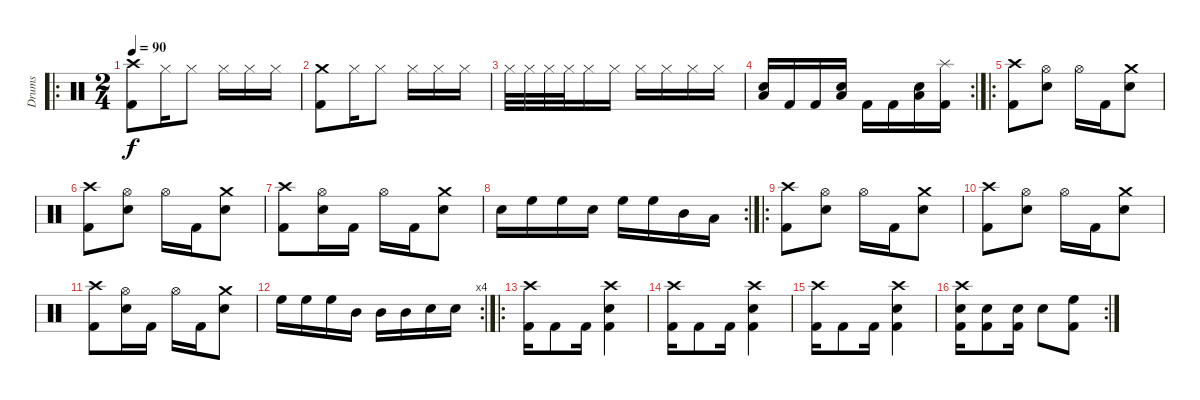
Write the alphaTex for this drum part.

\track ("Drums" "Drums") {instrument percussion}
\staff {score}
\articulation defaults
\ro
\ts (2 4)
\tempo 90
\clef neutral
\ks c
("Crash high (hit)" "Kick (hit) 2").8{dy f} "Hi-Hat (closed)".16 "Hi-Hat (closed)".8 "Hi-Hat (closed)".16 "Hi-Hat (closed)".16 "Hi-Hat (closed)".16 |
("Crash medium (hit)" "Kick (hit) 2").8 "Hi-Hat (closed)".16 "Hi-Hat (closed)".8 "Hi-Hat (closed)".16 "Hi-Hat (closed)".16 "Hi-Hat (closed)".16 |
"Hi-Hat (closed)".32 "Hi-Hat (closed)".32 "Hi-Hat (closed)".32 "Hi-Hat (closed)".32 "Hi-Hat (closed)".16 "Hi-Hat (closed)".16 "Hi-Hat (closed)".16 "Hi-Hat (closed)".16 "Hi-Hat (closed)".16 "Hi-Hat (closed)".16 |
\rc 2
("Snare (hit) 2" "Low Tom (hit)").16 "Kick (hit) 2".16 "Kick (hit) 2".16 ("Low Tom (hit)" "Snare (hit) 2").16 "Kick (hit) 2".16 "Kick (hit) 2".16 ("Snare (hit) 2" "Low Tom (hit)").16 ("Splash (hit)" "Kick (hit) 2").16 |
\ro
("Crash high (hit)" "Kick (hit) 2").8 ("Hi-Hat (open)" "Snare (hit) 2").8 "Hi-Hat (open)".16 "Kick (hit) 2".16 ("Crash medium (hit)" "Snare (hit) 2").8 |
("Crash high (hit)" "Kick (hit) 2").8 ("Hi-Hat (open)" "Snare (hit) 2").8 "Hi-Hat (open)".16 "Kick (hit) 2".16 ("Crash medium (hit)" "Snare (hit) 2").8 |
("Crash high (hit)" "Kick (hit) 2").8 ("Hi-Hat (open)" "Snare (hit) 2").16 "Kick (hit) 2".16 "Hi-Hat (open)".16 "Kick (hit) 2".16 ("Crash medium (hit)" "Snare (hit) 2").8 |
\rc 2 "Snare (hit) 2".16 "High Floor Tom (hit)".16 "High Floor Tom (hit)".16 "Snare (hit) 2".16 "High Floor Tom (hit)".16 "High Floor Tom (hit)".16 "Mid Tom (hit)".16 "Low Tom (hit)".16
|
\ro
("Crash high (hit)" "Kick (hit) 2").8 ("Hi-Hat (open)" "Snare (hit) 2").8 "Hi-Hat (open)".16 "Kick (hit) 2".16 ("Crash medium (hit)" "Snare (hit) 2").8 |
("Crash high (hit)" "Kick (hit) 2").8 ("Hi-Hat (open)" "Snare (hit) 2").8 "Hi-Hat (open)".16 "Kick (hit) 2".16 ("Crash medium (hit)" "Snare (hit) 2").8 |
("Crash high (hit)" "Kick (hit) 2").8 ("Hi-Hat (open)" "Snare (hit) 2").16 "Kick (hit) 2".16 "Hi-Hat (open)".16 "Kick (hit) 2".16 ("Crash medium (hit)" "Snare (hit) 2").8 |
\rc 4 "High Floor Tom (hit)".16 "High Floor Tom (hit)".16 "High Floor Tom (hit)".16 "Mid Tom (hit)".16 "Mid Tom (hit)".16 "Mid Tom (hit)".16 "Snare (hit) 2".16 "Snare (hit) 2".16
|
\ro
("Crash high (hit)" "Kick (hit) 2").16 "Kick (hit) 2".8 "Kick (hit) 2".16 ("Snare (hit) 2" "Crash high (hit)" "Kick (hit) 2").4 |
("Crash high (hit)" "Kick (hit) 2").16 "Kick (hit) 2".8 "Kick (hit) 2".16 ("Snare (hit) 2" "Crash high (hit)" "Kick (hit) 2").4 |
("Crash high (hit)" "Kick (hit) 2").16 "Kick (hit) 2".8 "Kick (hit) 2".16 ("Snare (hit) 2" "Crash high (hit)" "Kick (hit) 2").4 |
\rc 2
("Crash high (hit)" "Snare (hit) 2" "Kick (hit) 2").16 ("Snare (hit) 2" "Kick (hit) 2").8 ("Snare (hit) 2" "Kick (hit) 2").16 "Snare (hit) 2".8 ("High Floor Tom (hit)" "Kick (hit) 2").8
